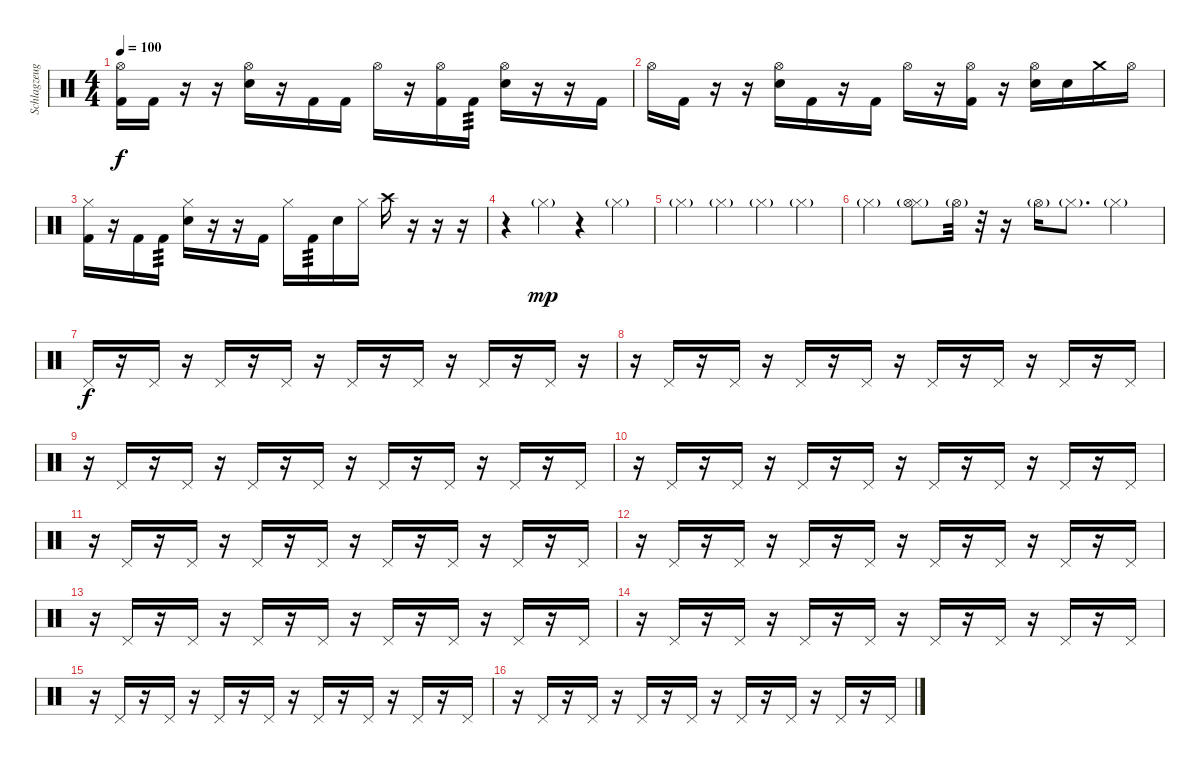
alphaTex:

\track ("Schlagzeug" "Schlagzeug") {instrument percussion}
\staff {score}
\articulation defaults
\ts (4 4)
\tempo 100
\clef neutral
\ks c
("Hi-Hat (open)" "Kick (hit) 2").16{dy f} "Kick (hit) 2".16 r.16 r.16 ("Hi-Hat (open)" "Snare (hit) 2").16 r.16 "Kick (hit) 2".16 "Kick (hit) 2".16 "Hi-Hat (open)".16 r.16 ("Hi-Hat (open)" "Kick (hit) 2").16 "Kick (hit) 2".16{tp 3} ("Hi-Hat (open)" "Snare (hit) 2").16 r.16 r.16 "Kick (hit) 2".16 |
"Hi-Hat (open)".16 "Kick (hit) 2".16 r.16 r.16 ("Hi-Hat (open)" "Snare (hit) 2").16 "Kick (hit) 2".16 r.16 "Kick (hit) 2".16 "Hi-Hat (open)".16 r.16 ("Hi-Hat (open)" "Kick (hit) 2").16 r.16 ("Hi-Hat (open)" "Snare (hit) 2").16 "Snare (hit) 2".16 "Crash medium (hit)".16 "Hi-Hat (open)".16 |
("Hi-Hat (closed)" "Kick (hit) 2").16 r.16 "Kick (hit) 2".16 "Kick (hit) 2".16{tp 3} ("Hi-Hat (closed)" "Snare (hit) 2").16 r.16 r.16 "Kick (hit) 2".16 "Hi-Hat (closed)".16 "Kick (hit) 2".16{tp 3} "Snare (hit) 2".16 "Hi-Hat (closed)".16 "Crash high (hit)".16 r.16 r.16 r.16 |
r.4 "Hi-Hat (closed)"{g}.4{dy mp} r.4 "Hi-Hat (closed)"{g}.4 |
"Hi-Hat (closed)"{g}.4 "Hi-Hat (closed)"{g}.4 "Hi-Hat (closed)"{g}.4 "Hi-Hat (closed)"{g}.4 |
"Hi-Hat (closed)"{g}.4 ("Hi-Hat (closed)"{g} "Hi-Hat (open)"{g}).8 "Hi-Hat (open)"{g}.32 r.32 r.16 "Hi-Hat (open)"{g}.16 "Hi-Hat (closed)"{g}.8{d} "Hi-Hat (closed)"{g}.4 |
"Pedal Hi-Hat (hit)".16{dy f} r.16 "Pedal Hi-Hat (hit)".16 r.16 "Pedal Hi-Hat (hit)".16 r.16 "Pedal Hi-Hat (hit)".16 r.16 "Pedal Hi-Hat (hit)".16 r.16 "Pedal Hi-Hat (hit)".16 r.16 "Pedal Hi-Hat (hit)".16 r.16 "Pedal Hi-Hat (hit)".16 r.16 |
r.16 "Pedal Hi-Hat (hit)".16 r.16 "Pedal Hi-Hat (hit)".16 r.16 "Pedal Hi-Hat (hit)".16 r.16 "Pedal Hi-Hat (hit)".16 r.16 "Pedal Hi-Hat (hit)".16 r.16 "Pedal Hi-Hat (hit)".16 r.16 "Pedal Hi-Hat (hit)".16 r.16 "Pedal Hi-Hat (hit)".16 |
r.16 "Pedal Hi-Hat (hit)".16 r.16 "Pedal Hi-Hat (hit)".16 r.16 "Pedal Hi-Hat (hit)".16 r.16 "Pedal Hi-Hat (hit)".16 r.16 "Pedal Hi-Hat (hit)".16 r.16 "Pedal Hi-Hat (hit)".16 r.16 "Pedal Hi-Hat (hit)".16 r.16 "Pedal Hi-Hat (hit)".16 |
r.16 "Pedal Hi-Hat (hit)".16 r.16 "Pedal Hi-Hat (hit)".16 r.16 "Pedal Hi-Hat (hit)".16 r.16 "Pedal Hi-Hat (hit)".16 r.16 "Pedal Hi-Hat (hit)".16 r.16 "Pedal Hi-Hat (hit)".16 r.16 "Pedal Hi-Hat (hit)".16 r.16 "Pedal Hi-Hat (hit)".16 |
r.16 "Pedal Hi-Hat (hit)".16 r.16 "Pedal Hi-Hat (hit)".16 r.16 "Pedal Hi-Hat (hit)".16 r.16 "Pedal Hi-Hat (hit)".16 r.16 "Pedal Hi-Hat (hit)".16 r.16 "Pedal Hi-Hat (hit)".16 r.16 "Pedal Hi-Hat (hit)".16 r.16 "Pedal Hi-Hat (hit)".16 |
r.16 "Pedal Hi-Hat (hit)".16 r.16 "Pedal Hi-Hat (hit)".16 r.16 "Pedal Hi-Hat (hit)".16 r.16 "Pedal Hi-Hat (hit)".16 r.16 "Pedal Hi-Hat (hit)".16 r.16 "Pedal Hi-Hat (hit)".16 r.16 "Pedal Hi-Hat (hit)".16 r.16 "Pedal Hi-Hat (hit)".16 |
r.16 "Pedal Hi-Hat (hit)".16 r.16 "Pedal Hi-Hat (hit)".16 r.16 "Pedal Hi-Hat (hit)".16 r.16 "Pedal Hi-Hat (hit)".16 r.16 "Pedal Hi-Hat (hit)".16 r.16 "Pedal Hi-Hat (hit)".16 r.16 "Pedal Hi-Hat (hit)".16 r.16 "Pedal Hi-Hat (hit)".16 |
r.16 "Pedal Hi-Hat (hit)".16 r.16 "Pedal Hi-Hat (hit)".16 r.16 "Pedal Hi-Hat (hit)".16 r.16 "Pedal Hi-Hat (hit)".16 r.16 "Pedal Hi-Hat (hit)".16 r.16 "Pedal Hi-Hat (hit)".16 r.16 "Pedal Hi-Hat (hit)".16 r.16 "Pedal Hi-Hat (hit)".16 |
r.16 "Pedal Hi-Hat (hit)".16 r.16 "Pedal Hi-Hat (hit)".16 r.16 "Pedal Hi-Hat (hit)".16 r.16 "Pedal Hi-Hat (hit)".16 r.16 "Pedal Hi-Hat (hit)".16 r.16 "Pedal Hi-Hat (hit)".16 r.16 "Pedal Hi-Hat (hit)".16 r.16 "Pedal Hi-Hat (hit)".16 |
r.16 "Pedal Hi-Hat (hit)".16 r.16 "Pedal Hi-Hat (hit)".16 r.16 "Pedal Hi-Hat (hit)".16 r.16 "Pedal Hi-Hat (hit)".16 r.16 "Pedal Hi-Hat (hit)".16 r.16 "Pedal Hi-Hat (hit)".16 r.16 "Pedal Hi-Hat (hit)".16 r.16 "Pedal Hi-Hat (hit)".16
